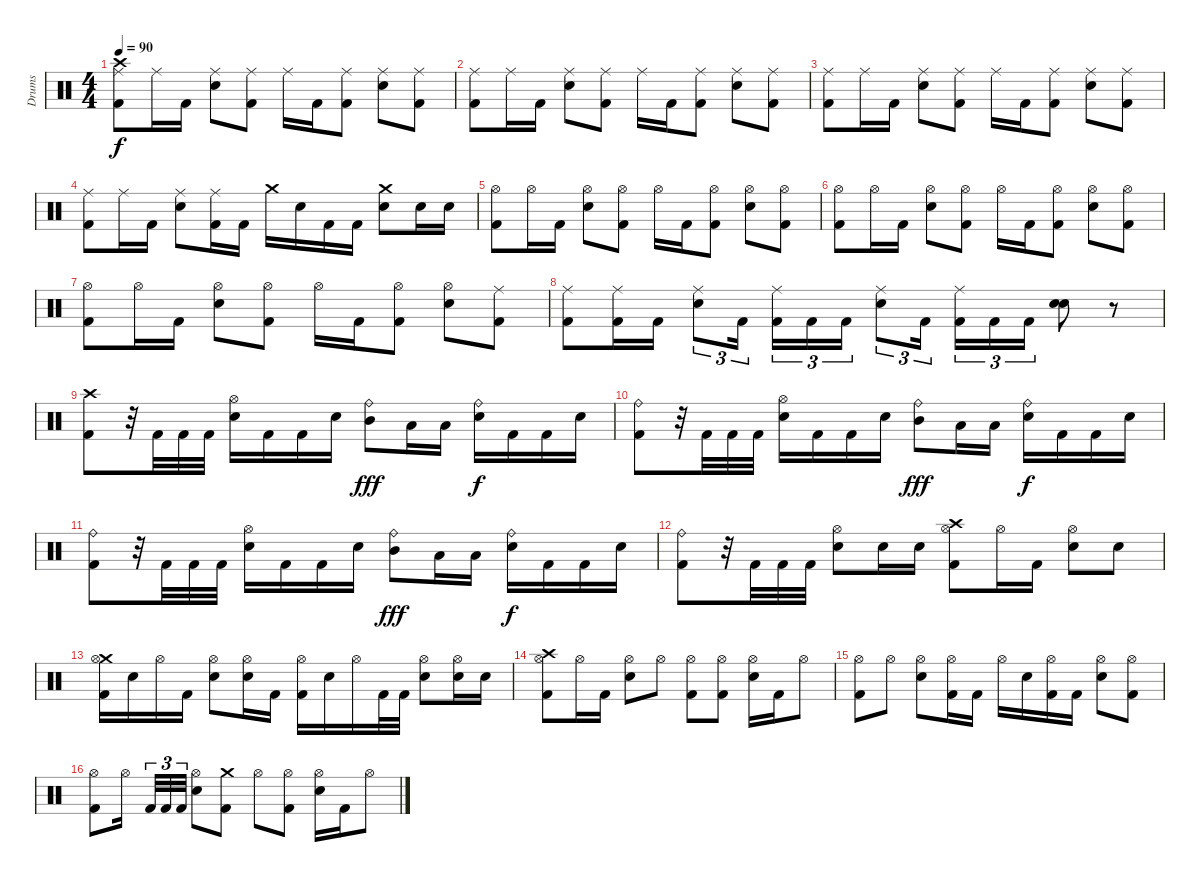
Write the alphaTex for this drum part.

\track ("Drums" "Drums") {instrument percussion}
\staff {score}
\articulation defaults
\ts (4 4)
\tempo 90
\clef neutral
\ks c
("Crash high (hit)" "Ride (middle)" "Kick (hit) 2").8{dy f} "Ride (middle)".16 "Kick (hit) 2".16 ("Ride (middle)" "Electric Snare (hit)").8 ("Ride (middle)" "Kick (hit) 2").8 "Ride (middle)".16 "Kick (hit) 2".16 ("Ride (middle)" "Kick (hit) 2").8 ("Ride (middle)" "Electric Snare (hit)").8 ("Ride (middle)" "Kick (hit) 2").8 |
("Ride (middle)" "Kick (hit) 2").8 "Ride (middle)".16 "Kick (hit) 2".16 ("Ride (middle)" "Electric Snare (hit)").8 ("Ride (middle)" "Kick (hit) 2").8 "Ride (middle)".16 "Kick (hit) 2".16 ("Ride (middle)" "Kick (hit) 2").8 ("Ride (middle)" "Electric Snare (hit)").8 ("Ride (middle)" "Kick (hit) 2").8 |
("Ride (middle)" "Kick (hit) 2").8 "Ride (middle)".16 "Kick (hit) 2".16 ("Ride (middle)" "Electric Snare (hit)").8 ("Ride (middle)" "Kick (hit) 2").8 "Ride (middle)".16 "Kick (hit) 2".16 ("Ride (middle)" "Kick (hit) 2").8 ("Ride (middle)" "Electric Snare (hit)").8 ("Ride (middle)" "Kick (hit) 2").8 |
("Ride (middle)" "Kick (hit) 2").8 "Ride (middle)".16 "Kick (hit) 2".16 ("Ride (middle)" "Electric Snare (hit)").8 ("Ride (middle)" "Kick (hit) 2").16 "Kick (hit) 2".16 "Crash medium (hit)".16 "Electric Snare (hit)".16 "Kick (hit) 2".16 "Kick (hit) 2".16 ("Crash medium (hit)" "Electric Snare (hit)").8 "Electric Snare (hit)".16 "Electric Snare (hit)".16 |
("Hi-Hat (open)" "Kick (hit) 2").8 "Hi-Hat (open)".16 "Kick (hit) 2".16 ("Hi-Hat (open)" "Electric Snare (hit)").8 ("Hi-Hat (open)" "Kick (hit) 2").8 "Hi-Hat (open)".16 "Kick (hit) 2".16 ("Hi-Hat (open)" "Kick (hit) 2").8 ("Hi-Hat (open)" "Electric Snare (hit)").8 ("Hi-Hat (open)" "Kick (hit) 2").8 |
("Hi-Hat (open)" "Kick (hit) 2").8 "Hi-Hat (open)".16 "Kick (hit) 2".16 ("Hi-Hat (open)" "Electric Snare (hit)").8 ("Hi-Hat (open)" "Kick (hit) 2").8 "Hi-Hat (open)".16 "Kick (hit) 2".16 ("Hi-Hat (open)" "Kick (hit) 2").8 ("Hi-Hat (open)" "Electric Snare (hit)").8 ("Hi-Hat (open)" "Kick (hit) 2").8 |
("Hi-Hat (open)" "Kick (hit) 2").8 "Hi-Hat (open)".16 "Kick (hit) 2".16 ("Hi-Hat (open)" "Electric Snare (hit)").8 ("Hi-Hat (open)" "Kick (hit) 2").8 "Hi-Hat (open)".16 "Kick (hit) 2".16 ("Hi-Hat (open)" "Kick (hit) 2").8 ("Hi-Hat (open)" "Electric Snare (hit)").8 ("Ride (middle)" "Kick (hit) 2").8 |
("Ride (middle)" "Kick (hit) 2").8 ("Ride (middle)" "Kick (hit) 2").16 "Kick (hit) 2".16 ("Ride (middle)" "Electric Snare (hit)").8{tu (3 2)} "Kick (hit) 2".16{tu (3 2)} ("Ride (middle)" "Kick (hit) 2").16{tu (3 2)} "Kick (hit) 2".16{tu (3 2)} "Kick (hit) 2".16{tu (3 2)} ("Ride (middle)" "Electric Snare (hit)").8{tu (3 2)} "Kick (hit) 2".16{tu (3 2)} ("Ride (middle)" "Kick (hit) 2").16{tu (3 2)} "Kick (hit) 2".16{tu (3 2)} "Kick (hit) 2".16{tu (3 2)} ("Snare (hit)" "Electric Snare (hit)").8 r.8 |
("Crash high (hit)" "Kick (hit) 2").8 r.32 "Kick (hit) 2".32 "Kick (hit) 2".32 "Kick (hit) 2".32 ("Hi-Hat (open)" "Electric Snare (hit)").16 "Kick (hit) 2".16 "Kick (hit) 2".16 "Electric Snare (hit)".16 ("Ride (bell)" "Mid Tom (hit)").8{dy fff} "Low Tom (hit)".16 "Low Tom (hit)".16 ("Ride (bell)" "Electric Snare (hit)").16{dy f} "Kick (hit) 2".16 "Kick (hit) 2".16 "Electric Snare (hit)".16 |
("Ride (bell)" "Kick (hit) 2").8 r.32 "Kick (hit) 2".32 "Kick (hit) 2".32 "Kick (hit) 2".32 ("Hi-Hat (open)" "Electric Snare (hit)").16 "Kick (hit) 2".16 "Kick (hit) 2".16 "Electric Snare (hit)".16 ("Ride (bell)" "Mid Tom (hit)").8{dy fff} "Low Tom (hit)".16 "Low Tom (hit)".16 ("Ride (bell)" "Electric Snare (hit)").16{dy f} "Kick (hit) 2".16 "Kick (hit) 2".16 "Electric Snare (hit)".16 |
("Ride (bell)" "Kick (hit) 2").8 r.32 "Kick (hit) 2".32 "Kick (hit) 2".32 "Kick (hit) 2".32 ("Hi-Hat (open)" "Electric Snare (hit)").16 "Kick (hit) 2".16 "Kick (hit) 2".16 "Electric Snare (hit)".16 ("Ride (bell)" "Mid Tom (hit)").8{dy fff} "Low Tom (hit)".16 "Low Tom (hit)".16 ("Ride (bell)" "Electric Snare (hit)").16{dy f} "Kick (hit) 2".16 "Kick (hit) 2".16 "Electric Snare (hit)".16 |
("Ride (bell)" "Kick (hit) 2").8 r.32 "Kick (hit) 2".32 "Kick (hit) 2".32 "Kick (hit) 2".32 ("Hi-Hat (open)" "Electric Snare (hit)").8 "Electric Snare (hit)".16 "Electric Snare (hit)".16 ("Crash high (hit)" "Hi-Hat (open)" "Kick (hit) 2").8 "Hi-Hat (open)".16 "Kick (hit) 2".16 ("Hi-Hat (open)" "Electric Snare (hit)").8 "Electric Snare (hit)".8 |
("Crash medium (hit)" "Hi-Hat (open)" "Kick (hit) 2").16 "Electric Snare (hit)".16 "Hi-Hat (open)".16 "Kick (hit) 2".16 ("Hi-Hat (open)" "Electric Snare (hit)").8 ("Hi-Hat (open)" "Electric Snare (hit)").16 "Kick (hit) 2".16 ("Hi-Hat (open)" "Kick (hit) 2").16 "Electric Snare (hit)".16 "Hi-Hat (open)".16 "Kick (hit) 2".32 "Kick (hit) 2".32 ("Hi-Hat (open)" "Electric Snare (hit)").8 ("Hi-Hat (open)" "Electric Snare (hit)").16 "Electric Snare (hit)".16 |
("Crash high (hit)" "Hi-Hat (open)" "Kick (hit) 2").8 "Hi-Hat (open)".16 "Kick (hit) 2".16 ("Hi-Hat (open)" "Electric Snare (hit)").8 "Hi-Hat (open)".8 ("Hi-Hat (open)" "Kick (hit) 2").8 ("Hi-Hat (open)" "Kick (hit) 2").8 ("Hi-Hat (open)" "Electric Snare (hit)").16 "Kick (hit) 2".16 "Hi-Hat (open)".8 |
("Hi-Hat (open)" "Kick (hit) 2").8 "Hi-Hat (open)".8 ("Hi-Hat (open)" "Electric Snare (hit)").8 ("Hi-Hat (open)" "Kick (hit) 2").16 "Kick (hit) 2".16 "Hi-Hat (open)".16 "Electric Snare (hit)".16 ("Hi-Hat (open)" "Kick (hit) 2").16 "Kick (hit) 2".16 ("Hi-Hat (open)" "Electric Snare (hit)").8 ("Hi-Hat (open)" "Kick (hit) 2").8 |
("Hi-Hat (open)" "Kick (hit) 2").8 "Hi-Hat (open)".16 "Kick (hit) 2".32{tu (3 2)} "Kick (hit) 2".32{tu (3 2)} "Kick (hit) 2".32{tu (3 2)} ("Hi-Hat (open)" "Electric Snare (hit)").8 ("Crash medium (hit)" "Kick (hit) 2").8 "Hi-Hat (open)".8 ("Hi-Hat (open)" "Kick (hit) 2").8 ("Hi-Hat (open)" "Electric Snare (hit)").16 "Kick (hit) 2".16 "Hi-Hat (open)".8
